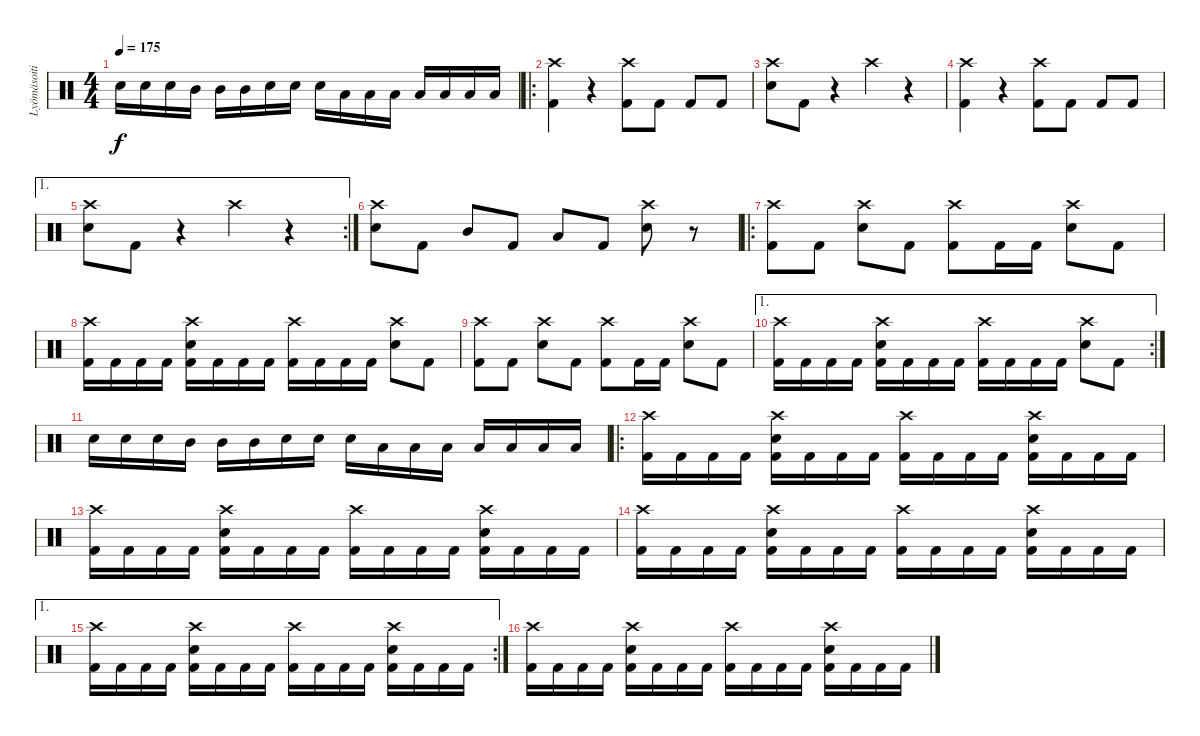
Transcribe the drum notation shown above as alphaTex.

\track ("Lyömäsoitin" "Lyömäsoiti") {instrument percussion}
\staff {score}
\articulation defaults
\ts (4 4)
\tempo 175
\clef neutral
\ks c "Electric Snare (hit)".16{dy f} "Electric Snare (hit)".16 "Electric Snare (hit)".16 "Mid Tom (hit)".16 "Mid Tom (hit)".16 "Mid Tom (hit)".16 "Electric Snare (hit)".16 "Electric Snare (hit)".16 "Electric Snare (hit)".16 "Low Tom (hit)".16 "Low Tom (hit)".16 "Low Tom (hit)".16 "Low Floor Tom (hit)".16 "Low Floor Tom (hit)".16 "Low Floor Tom (hit)".16 "Low Floor Tom (hit)".16
|
\ro
("Kick (hit) 2" "Crash high (hit)").4 r.4 ("Kick (hit) 2" "Crash high (hit)").8 "Kick (hit) 2".8 "Kick (hit) 2".8 "Kick (hit) 2".8 |
("Electric Snare (hit)" "Crash high (hit)").8 "Kick (hit) 2".8 r.4 "Crash high (hit)".4 r.4 |
("Kick (hit) 2" "Crash high (hit)").4 r.4 ("Kick (hit) 2" "Crash high (hit)").8 "Kick (hit) 2".8 "Kick (hit) 2".8 "Kick (hit) 2".8 |
\ae 1
\rc 2
("Electric Snare (hit)" "Crash high (hit)").8 "Kick (hit) 2".8 r.4 "Crash high (hit)".4 r.4 |
("Electric Snare (hit)" "Crash high (hit)").8 "Kick (hit) 2".8 "Mid Tom (hit)".8 "Kick (hit) 2".8 "Low Tom (hit)".8 "Kick (hit) 2".8 ("Electric Snare (hit)" "Crash high (hit)").8 r.8 |
\ro
("Kick (hit) 2" "Crash high (hit)").8 "Kick (hit) 2".8 ("Electric Snare (hit)" "Crash high (hit)").8 "Kick (hit) 2".8 ("Kick (hit) 2" "Crash high (hit)").8 "Kick (hit) 2".16 "Kick (hit) 2".16 ("Electric Snare (hit)" "Crash high (hit)").8 "Kick (hit) 2".8 |
("Kick (hit) 2" "Crash high (hit)").16 "Kick (hit) 2".16 "Kick (hit) 2".16 "Kick (hit) 2".16 ("Kick (hit) 2" "Electric Snare (hit)" "Crash high (hit)").16 "Kick (hit) 2".16 "Kick (hit) 2".16 "Kick (hit) 2".16 ("Kick (hit) 2" "Crash high (hit)").16 "Kick (hit) 2".16 "Kick (hit) 2".16 "Kick (hit) 2".16 ("Electric Snare (hit)" "Crash high (hit)").8 "Kick (hit) 2".8 |
("Kick (hit) 2" "Crash high (hit)").8 "Kick (hit) 2".8 ("Electric Snare (hit)" "Crash high (hit)").8 "Kick (hit) 2".8 ("Kick (hit) 2" "Crash high (hit)").8 "Kick (hit) 2".16 "Kick (hit) 2".16 ("Electric Snare (hit)" "Crash high (hit)").8 "Kick (hit) 2".8 |
\ae 1
\rc 2
("Kick (hit) 2" "Crash high (hit)").16 "Kick (hit) 2".16 "Kick (hit) 2".16 "Kick (hit) 2".16 ("Kick (hit) 2" "Electric Snare (hit)" "Crash high (hit)").16 "Kick (hit) 2".16 "Kick (hit) 2".16 "Kick (hit) 2".16 ("Kick (hit) 2" "Crash high (hit)").16 "Kick (hit) 2".16 "Kick (hit) 2".16 "Kick (hit) 2".16 ("Electric Snare (hit)" "Crash high (hit)").8 "Kick (hit) 2".8 |
"Electric Snare (hit)".16 "Electric Snare (hit)".16 "Electric Snare (hit)".16 "Mid Tom (hit)".16 "Mid Tom (hit)".16 "Mid Tom (hit)".16 "Electric Snare (hit)".16 "Electric Snare (hit)".16 "Electric Snare (hit)".16 "Low Tom (hit)".16 "Low Tom (hit)".16 "Low Tom (hit)".16 "Low Floor Tom (hit)".16 "Low Floor Tom (hit)".16 "Low Floor Tom (hit)".16 "Low Floor Tom (hit)".16 |
\ro
("Kick (hit) 2" "Crash high (hit)").16 "Kick (hit) 2".16 "Kick (hit) 2".16 "Kick (hit) 2".16 ("Kick (hit) 2" "Electric Snare (hit)" "Crash high (hit)").16 "Kick (hit) 2".16 "Kick (hit) 2".16 "Kick (hit) 2".16 ("Kick (hit) 2" "Crash high (hit)").16 "Kick (hit) 2".16 "Kick (hit) 2".16 "Kick (hit) 2".16 ("Kick (hit) 2" "Electric Snare (hit)" "Crash high (hit)").16 "Kick (hit) 2".16 "Kick (hit) 2".16 "Kick (hit) 2".16 |
("Kick (hit) 2" "Crash high (hit)").16 "Kick (hit) 2".16 "Kick (hit) 2".16 "Kick (hit) 2".16 ("Kick (hit) 2" "Electric Snare (hit)" "Crash high (hit)").16 "Kick (hit) 2".16 "Kick (hit) 2".16 "Kick (hit) 2".16 ("Kick (hit) 2" "Crash high (hit)").16 "Kick (hit) 2".16 "Kick (hit) 2".16 "Kick (hit) 2".16 ("Kick (hit) 2" "Electric Snare (hit)" "Crash high (hit)").16 "Kick (hit) 2".16 "Kick (hit) 2".16 "Kick (hit) 2".16 |
("Kick (hit) 2" "Crash high (hit)").16 "Kick (hit) 2".16 "Kick (hit) 2".16 "Kick (hit) 2".16 ("Kick (hit) 2" "Electric Snare (hit)" "Crash high (hit)").16 "Kick (hit) 2".16 "Kick (hit) 2".16 "Kick (hit) 2".16 ("Kick (hit) 2" "Crash high (hit)").16 "Kick (hit) 2".16 "Kick (hit) 2".16 "Kick (hit) 2".16 ("Kick (hit) 2" "Electric Snare (hit)" "Crash high (hit)").16 "Kick (hit) 2".16 "Kick (hit) 2".16 "Kick (hit) 2".16 |
\ae 1
\rc 2
("Kick (hit) 2" "Crash high (hit)").16 "Kick (hit) 2".16 "Kick (hit) 2".16 "Kick (hit) 2".16 ("Kick (hit) 2" "Electric Snare (hit)" "Crash high (hit)").16 "Kick (hit) 2".16 "Kick (hit) 2".16 "Kick (hit) 2".16 ("Kick (hit) 2" "Crash high (hit)").16 "Kick (hit) 2".16 "Kick (hit) 2".16 "Kick (hit) 2".16 ("Kick (hit) 2" "Electric Snare (hit)" "Crash high (hit)").16 "Kick (hit) 2".16 "Kick (hit) 2".16 "Kick (hit) 2".16 |
("Kick (hit) 2" "Crash high (hit)").16 "Kick (hit) 2".16 "Kick (hit) 2".16 "Kick (hit) 2".16 ("Kick (hit) 2" "Electric Snare (hit)" "Crash high (hit)").16 "Kick (hit) 2".16 "Kick (hit) 2".16 "Kick (hit) 2".16 ("Kick (hit) 2" "Crash high (hit)").16 "Kick (hit) 2".16 "Kick (hit) 2".16 "Kick (hit) 2".16 ("Kick (hit) 2" "Electric Snare (hit)" "Crash high (hit)").16 "Kick (hit) 2".16 "Kick (hit) 2".16 "Kick (hit) 2".16
